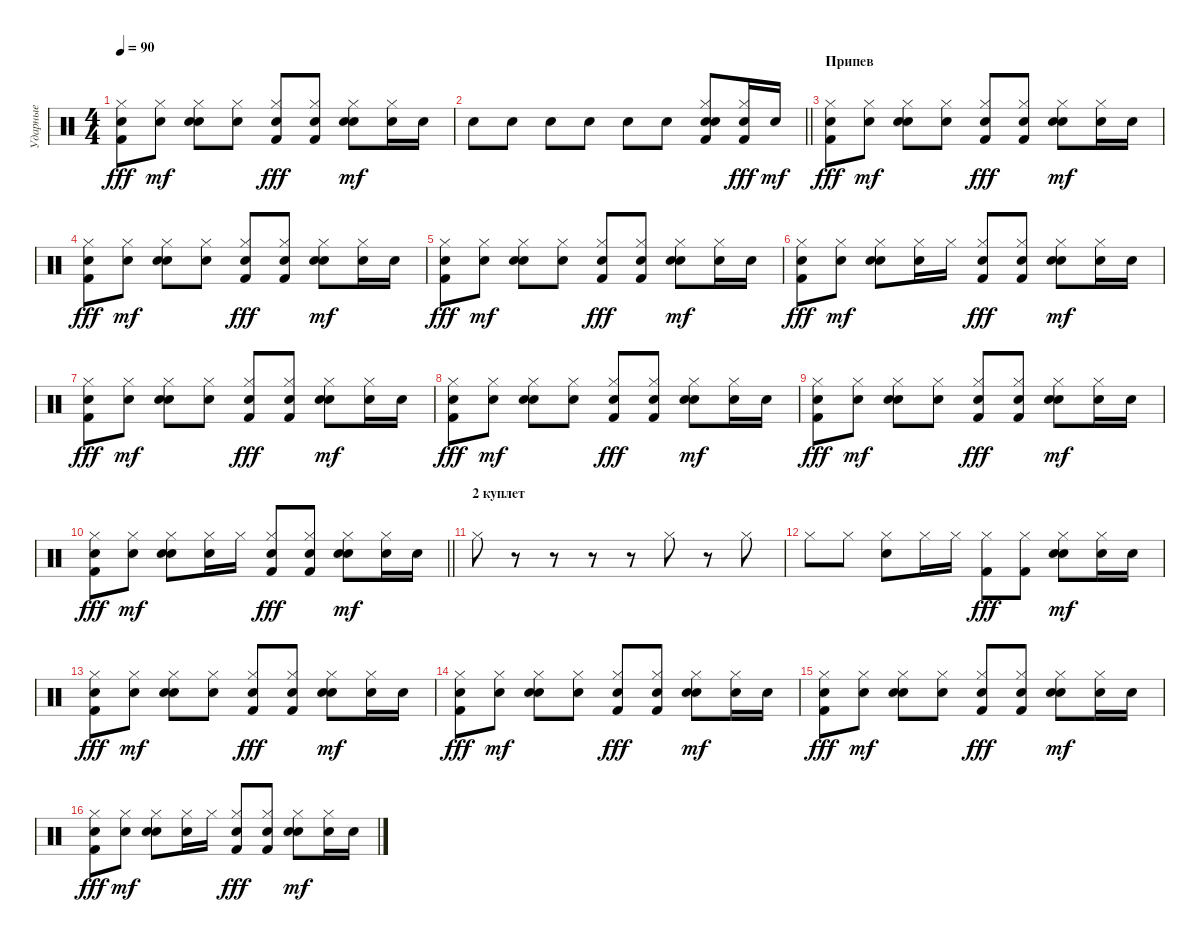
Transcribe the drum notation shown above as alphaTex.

\track ("Ударные" "Ударные") {instrument percussion}
\staff {score}
\articulation defaults
\ts (4 4)
\tempo 90
\clef neutral
\ks c
("Hand Clap (hit)" "Hi-Hat (closed)" "Kick (hit) 2").8{dy fff} ("Hand Clap (hit)" "Hi-Hat (closed)").8{dy mf} ("Hand Clap (hit)" "Hi-Hat (closed)" "Snare (hit) 2").8 ("Hand Clap (hit)" "Hi-Hat (closed)").8 ("Hand Clap (hit)" "Hi-Hat (closed)" "Kick (hit) 2").8{dy fff} ("Hand Clap (hit)" "Hi-Hat (closed)" "Kick (hit) 2").8 ("Hand Clap (hit)" "Hi-Hat (closed)" "Snare (hit) 2").8{dy mf} ("Hand Clap (hit)" "Hi-Hat (closed)").16 "Hand Clap (hit)".16 |
\barLineRight lightlight "Hand Clap (hit)".8 "Hand Clap (hit)".8 "Hand Clap (hit)".8 "Hand Clap (hit)".8 "Hand Clap (hit)".8 "Hand Clap (hit)".8
("Hand Clap (hit)" "Hi-Hat (closed)" "Snare (hit) 2" "Kick (hit) 2").8 ("Hand Clap (hit)" "Hi-Hat (closed)" "Kick (hit) 2").16{dy fff} "Hand Clap (hit)".16{dy mf} |
\section ("" "Припев")
("Hand Clap (hit)" "Hi-Hat (closed)" "Kick (hit) 2").8{dy fff} ("Hand Clap (hit)" "Hi-Hat (closed)").8{dy mf} ("Hand Clap (hit)" "Hi-Hat (closed)" "Snare (hit) 2").8 ("Hand Clap (hit)" "Hi-Hat (closed)").8 ("Hand Clap (hit)" "Hi-Hat (closed)" "Kick (hit) 2").8{dy fff} ("Hand Clap (hit)" "Hi-Hat (closed)" "Kick (hit) 2").8 ("Hand Clap (hit)" "Hi-Hat (closed)" "Snare (hit) 2").8{dy mf} ("Hand Clap (hit)" "Hi-Hat (closed)").16 "Hand Clap (hit)".16 |
("Hand Clap (hit)" "Hi-Hat (closed)" "Kick (hit) 2").8{dy fff} ("Hand Clap (hit)" "Hi-Hat (closed)").8{dy mf} ("Hand Clap (hit)" "Hi-Hat (closed)" "Snare (hit) 2").8 ("Hand Clap (hit)" "Hi-Hat (closed)").8 ("Hand Clap (hit)" "Hi-Hat (closed)" "Kick (hit) 2").8{dy fff} ("Hand Clap (hit)" "Hi-Hat (closed)" "Kick (hit) 2").8 ("Hand Clap (hit)" "Hi-Hat (closed)" "Snare (hit) 2").8{dy mf} ("Hand Clap (hit)" "Hi-Hat (closed)").16 "Hand Clap (hit)".16 |
("Hand Clap (hit)" "Hi-Hat (closed)" "Kick (hit) 2").8{dy fff} ("Hand Clap (hit)" "Hi-Hat (closed)").8{dy mf} ("Hand Clap (hit)" "Hi-Hat (closed)" "Snare (hit) 2").8 ("Hand Clap (hit)" "Hi-Hat (closed)").8 ("Hand Clap (hit)" "Hi-Hat (closed)" "Kick (hit) 2").8{dy fff} ("Hand Clap (hit)" "Hi-Hat (closed)" "Kick (hit) 2").8 ("Hand Clap (hit)" "Hi-Hat (closed)" "Snare (hit) 2").8{dy mf} ("Hand Clap (hit)" "Hi-Hat (closed)").16 "Hand Clap (hit)".16 |
("Hand Clap (hit)" "Hi-Hat (closed)" "Kick (hit) 2").8{dy fff} ("Hand Clap (hit)" "Hi-Hat (closed)").8{dy mf} ("Hand Clap (hit)" "Hi-Hat (closed)" "Snare (hit) 2").8 ("Hand Clap (hit)" "Hi-Hat (closed)").16 "Hi-Hat (closed)".16 ("Hand Clap (hit)" "Hi-Hat (closed)" "Kick (hit) 2").8{dy fff} ("Hand Clap (hit)" "Hi-Hat (closed)" "Kick (hit) 2").8 ("Hand Clap (hit)" "Hi-Hat (closed)" "Snare (hit) 2").8{dy mf} ("Hand Clap (hit)" "Hi-Hat (closed)").16 "Hand Clap (hit)".16 |
("Hand Clap (hit)" "Hi-Hat (closed)" "Kick (hit) 2").8{dy fff} ("Hand Clap (hit)" "Hi-Hat (closed)").8{dy mf} ("Hand Clap (hit)" "Hi-Hat (closed)" "Snare (hit) 2").8 ("Hand Clap (hit)" "Hi-Hat (closed)").8 ("Hand Clap (hit)" "Hi-Hat (closed)" "Kick (hit) 2").8{dy fff} ("Hand Clap (hit)" "Hi-Hat (closed)" "Kick (hit) 2").8 ("Hand Clap (hit)" "Hi-Hat (closed)" "Snare (hit) 2").8{dy mf} ("Hand Clap (hit)" "Hi-Hat (closed)").16 "Hand Clap (hit)".16 |
("Hand Clap (hit)" "Hi-Hat (closed)" "Kick (hit) 2").8{dy fff} ("Hand Clap (hit)" "Hi-Hat (closed)").8{dy mf} ("Hand Clap (hit)" "Hi-Hat (closed)" "Snare (hit) 2").8 ("Hand Clap (hit)" "Hi-Hat (closed)").8 ("Hand Clap (hit)" "Hi-Hat (closed)" "Kick (hit) 2").8{dy fff} ("Hand Clap (hit)" "Hi-Hat (closed)" "Kick (hit) 2").8 ("Hand Clap (hit)" "Hi-Hat (closed)" "Snare (hit) 2").8{dy mf} ("Hand Clap (hit)" "Hi-Hat (closed)").16 "Hand Clap (hit)".16 |
("Hand Clap (hit)" "Hi-Hat (closed)" "Kick (hit) 2").8{dy fff} ("Hand Clap (hit)" "Hi-Hat (closed)").8{dy mf} ("Hand Clap (hit)" "Hi-Hat (closed)" "Snare (hit) 2").8 ("Hand Clap (hit)" "Hi-Hat (closed)").8 ("Hand Clap (hit)" "Hi-Hat (closed)" "Kick (hit) 2").8{dy fff} ("Hand Clap (hit)" "Hi-Hat (closed)" "Kick (hit) 2").8 ("Hand Clap (hit)" "Hi-Hat (closed)" "Snare (hit) 2").8{dy mf} ("Hand Clap (hit)" "Hi-Hat (closed)").16 "Hand Clap (hit)".16 |
\barLineRight lightlight
("Hand Clap (hit)" "Hi-Hat (closed)" "Kick (hit) 2").8{dy fff} ("Hand Clap (hit)" "Hi-Hat (closed)").8{dy mf} ("Hand Clap (hit)" "Hi-Hat (closed)" "Snare (hit) 2").8 ("Hand Clap (hit)" "Hi-Hat (closed)").16 "Hi-Hat (closed)".16 ("Hand Clap (hit)" "Hi-Hat (closed)" "Kick (hit) 2").8{dy fff} ("Hand Clap (hit)" "Hi-Hat (closed)" "Kick (hit) 2").8 ("Hand Clap (hit)" "Hi-Hat (closed)" "Snare (hit) 2").8{dy mf} ("Hand Clap (hit)" "Hi-Hat (closed)").16 "Hand Clap (hit)".16 |
\section ("" "2 куплет")
"Hi-Hat (closed)".8 r.8 r.8 r.8 r.8 "Hi-Hat (closed)".8 r.8 "Hi-Hat (closed)".8 |
"Hi-Hat (closed)".8 "Hi-Hat (closed)".8 ("Hi-Hat (closed)" "Snare (hit) 2").8 "Hi-Hat (closed)".16 "Hi-Hat (closed)".16 ("Hi-Hat (closed)" "Kick (hit) 2").8{dy fff} ("Hi-Hat (closed)" "Kick (hit) 2").8 ("Hand Clap (hit)" "Hi-Hat (closed)" "Snare (hit) 2").8{dy mf} ("Hand Clap (hit)" "Hi-Hat (closed)").16 "Hand Clap (hit)".16 |
("Hand Clap (hit)" "Hi-Hat (closed)" "Kick (hit) 2").8{dy fff} ("Hand Clap (hit)" "Hi-Hat (closed)").8{dy mf} ("Hand Clap (hit)" "Hi-Hat (closed)" "Snare (hit) 2").8 ("Hand Clap (hit)" "Hi-Hat (closed)").8 ("Hand Clap (hit)" "Hi-Hat (closed)" "Kick (hit) 2").8{dy fff} ("Hand Clap (hit)" "Hi-Hat (closed)" "Kick (hit) 2").8 ("Hand Clap (hit)" "Hi-Hat (closed)" "Snare (hit) 2").8{dy mf} ("Hand Clap (hit)" "Hi-Hat (closed)").16 "Hand Clap (hit)".16 |
("Hand Clap (hit)" "Hi-Hat (closed)" "Kick (hit) 2").8{dy fff} ("Hand Clap (hit)" "Hi-Hat (closed)").8{dy mf} ("Hand Clap (hit)" "Hi-Hat (closed)" "Snare (hit) 2").8 ("Hand Clap (hit)" "Hi-Hat (closed)").8 ("Hand Clap (hit)" "Hi-Hat (closed)" "Kick (hit) 2").8{dy fff} ("Hand Clap (hit)" "Hi-Hat (closed)" "Kick (hit) 2").8 ("Hand Clap (hit)" "Hi-Hat (closed)" "Snare (hit) 2").8{dy mf} ("Hand Clap (hit)" "Hi-Hat (closed)").16 "Hand Clap (hit)".16 |
("Hand Clap (hit)" "Hi-Hat (closed)" "Kick (hit) 2").8{dy fff} ("Hand Clap (hit)" "Hi-Hat (closed)").8{dy mf} ("Hand Clap (hit)" "Hi-Hat (closed)" "Snare (hit) 2").8 ("Hand Clap (hit)" "Hi-Hat (closed)").8 ("Hand Clap (hit)" "Hi-Hat (closed)" "Kick (hit) 2").8{dy fff} ("Hand Clap (hit)" "Hi-Hat (closed)" "Kick (hit) 2").8 ("Hand Clap (hit)" "Hi-Hat (closed)" "Snare (hit) 2").8{dy mf} ("Hand Clap (hit)" "Hi-Hat (closed)").16 "Hand Clap (hit)".16 |
("Hand Clap (hit)" "Hi-Hat (closed)" "Kick (hit) 2").8{dy fff} ("Hand Clap (hit)" "Hi-Hat (closed)").8{dy mf} ("Hand Clap (hit)" "Hi-Hat (closed)" "Snare (hit) 2").8 ("Hand Clap (hit)" "Hi-Hat (closed)").16 "Hi-Hat (closed)".16 ("Hand Clap (hit)" "Hi-Hat (closed)" "Kick (hit) 2").8{dy fff} ("Hand Clap (hit)" "Hi-Hat (closed)" "Kick (hit) 2").8 ("Hand Clap (hit)" "Hi-Hat (closed)" "Snare (hit) 2").8{dy mf} ("Hand Clap (hit)" "Hi-Hat (closed)").16 "Hand Clap (hit)".16
